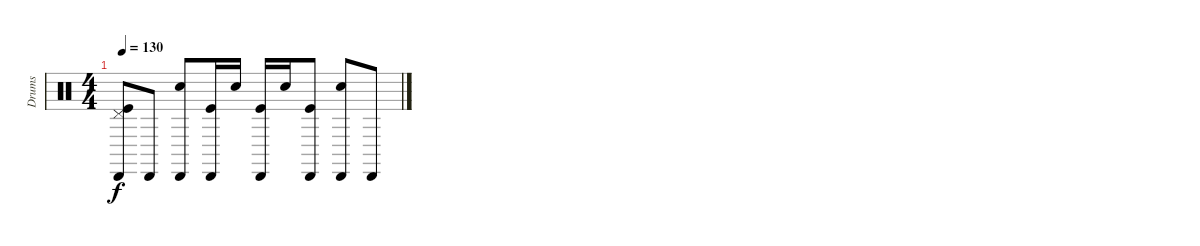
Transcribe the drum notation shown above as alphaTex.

\track ("Drums" "Drums") {instrument percussion}
\staff {score}
\articulation defaults
\ts (4 4)
\tempo 130
\clef neutral
\ks c
("Cabasa (hit)" "Pedal Hi-Hat (hit)" "Kick (hit)").8{dy f} "Cabasa (hit)".8 ("Cabasa (hit)" "Electric Snare (hit)").8 ("Cabasa (hit)" "Kick (hit)").16 "Electric Snare (hit)".16 ("Cabasa (hit)" "Kick (hit)").16 "Electric Snare (hit)".16 ("Cabasa (hit)" "Kick (hit)").8 ("Cabasa (hit)" "Electric Snare (hit)").8 "Cabasa (hit)".8
